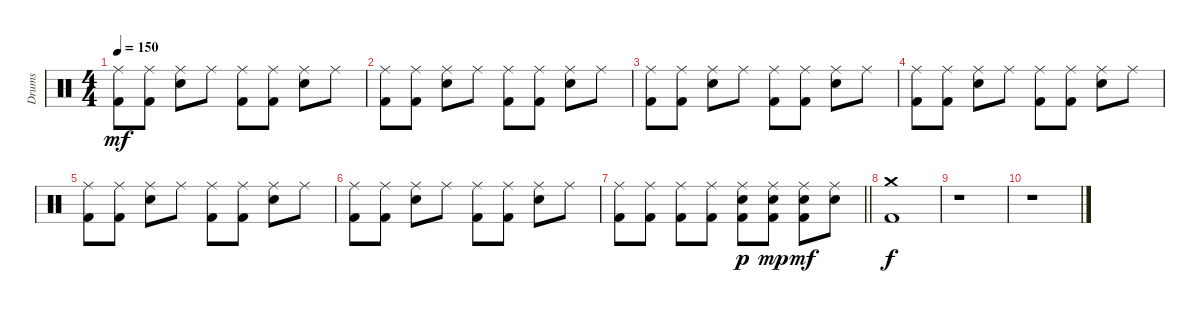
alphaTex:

\track ("Drums" "Drums") {instrument percussion}
\staff {score}
\articulation defaults
\ts (4 4)
\tempo 150
\clef neutral
\ks c
("Ride (middle)" "Kick (hit) 2").8{dy mf} ("Ride (middle)" "Kick (hit) 2").8 ("Ride (middle)" "Electric Snare (hit)").8 "Ride (middle)".8 ("Ride (middle)" "Kick (hit) 2").8 ("Ride (middle)" "Kick (hit) 2").8 ("Ride (middle)" "Electric Snare (hit)").8 "Ride (middle)".8 |
("Ride (middle)" "Kick (hit) 2").8 ("Ride (middle)" "Kick (hit) 2").8 ("Ride (middle)" "Electric Snare (hit)").8 "Ride (middle)".8 ("Ride (middle)" "Kick (hit) 2").8 ("Ride (middle)" "Kick (hit) 2").8 ("Ride (middle)" "Electric Snare (hit)").8 "Ride (middle)".8 |
("Ride (middle)" "Kick (hit) 2").8 ("Ride (middle)" "Kick (hit) 2").8 ("Ride (middle)" "Electric Snare (hit)").8 "Ride (middle)".8 ("Ride (middle)" "Kick (hit) 2").8 ("Ride (middle)" "Kick (hit) 2").8 ("Ride (middle)" "Electric Snare (hit)").8 "Ride (middle)".8 |
("Ride (middle)" "Kick (hit) 2").8 ("Ride (middle)" "Kick (hit) 2").8 ("Ride (middle)" "Electric Snare (hit)").8 "Ride (middle)".8 ("Ride (middle)" "Kick (hit) 2").8 ("Ride (middle)" "Kick (hit) 2").8 ("Ride (middle)" "Electric Snare (hit)").8 "Ride (middle)".8 |
("Ride (middle)" "Kick (hit) 2").8 ("Ride (middle)" "Kick (hit) 2").8 ("Ride (middle)" "Electric Snare (hit)").8 "Ride (middle)".8 ("Ride (middle)" "Kick (hit) 2").8 ("Ride (middle)" "Kick (hit) 2").8 ("Ride (middle)" "Electric Snare (hit)").8 "Ride (middle)".8 |
("Ride (middle)" "Kick (hit) 2").8 ("Ride (middle)" "Kick (hit) 2").8 ("Ride (middle)" "Electric Snare (hit)").8 "Ride (middle)".8 ("Ride (middle)" "Kick (hit) 2").8 ("Ride (middle)" "Kick (hit) 2").8 ("Ride (middle)" "Electric Snare (hit)").8 "Ride (middle)".8 |
\barLineRight lightlight
("Ride (middle)" "Kick (hit) 2").8 ("Ride (middle)" "Kick (hit) 2").8 ("Ride (middle)" "Kick (hit) 2").8 ("Ride (middle)" "Kick (hit) 2").8 ("Ride (middle)" "Electric Snare (hit)" "Kick (hit) 2").8{dy p} ("Ride (middle)" "Electric Snare (hit)" "Kick (hit) 2").8{dy mp} ("Ride (middle)" "Electric Snare (hit)" "Kick (hit) 2").8{dy mf} ("Ride (middle)" "Electric Snare (hit)").8 |
("Crash medium (hit)" "Kick (hit) 2").1{dy f} |
r.1 |
r.1
